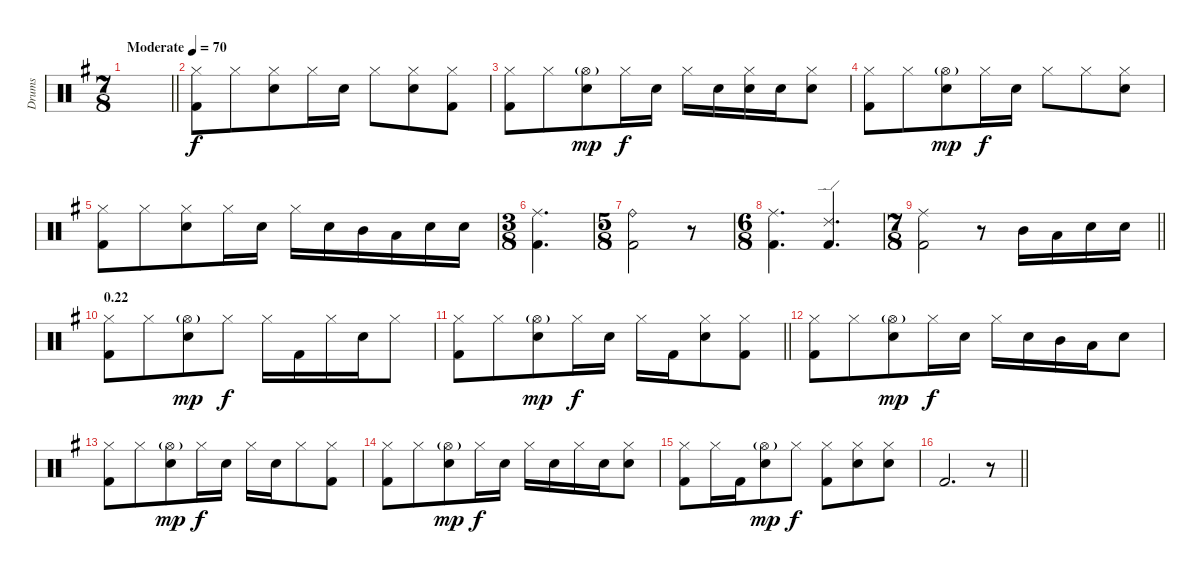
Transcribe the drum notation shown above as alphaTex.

\track ("Drums" "Drums") {instrument percussion}
\staff {score}
\articulation defaults
\ts (7 8)
\tempo (70 "Moderate")
\clef neutral
\barLineRight lightlight
\ks g
|
("Hi-Hat (closed)" "Kick (hit) 2").8 "Hi-Hat (closed)".8 ("Hi-Hat (closed)" "Electric Snare (hit)").8 "Hi-Hat (closed)".16 "Electric Snare (hit)".16 "Hi-Hat (closed)".8 ("Hi-Hat (closed)" "Electric Snare (hit)").8 ("Hi-Hat (closed)" "Kick (hit) 2").8 |
("Hi-Hat (closed)" "Kick (hit) 2").8 "Hi-Hat (closed)".8 ("Hi-Hat (open)"{g} "Electric Snare (hit)").8{dy mp} "Hi-Hat (closed)".16{dy f} "Electric Snare (hit)".16 "Hi-Hat (closed)".16 "Electric Snare (hit)".16 ("Hi-Hat (closed)" "Electric Snare (hit)").16 "Electric Snare (hit)".16 ("Hi-Hat (closed)" "Electric Snare (hit)").8 |
("Hi-Hat (closed)" "Kick (hit) 2").8 "Hi-Hat (closed)".8 ("Hi-Hat (open)"{g} "Electric Snare (hit)").8{dy mp} "Hi-Hat (closed)".16{dy f} "Electric Snare (hit)".16 "Hi-Hat (closed)".8 "Hi-Hat (closed)".8 ("Hi-Hat (closed)" "Electric Snare (hit)").8 |
("Hi-Hat (closed)" "Kick (hit) 2").8 "Hi-Hat (closed)".8 ("Hi-Hat (closed)" "Electric Snare (hit)").8 "Hi-Hat (closed)".16 "Electric Snare (hit)".16 "Hi-Hat (closed)".16 "Electric Snare (hit)".16 "Mid Tom (hit)".16 "Low Tom (hit)".16 "Electric Snare (hit)".16 "Electric Snare (hit)".16 |
\ts (3 8)
("Ride (middle)" "Kick (hit) 2").4{d} |
\ts (5 8)
("Ride (bell)" "Kick (hit) 2").2 r.8 |
\ts (6 8)
("Ride (middle)" "Kick (hit) 2").4{d} ("Ride (edge) 2" "Kick (hit) 2").4{d} |
\ts (7 8)
\barLineRight lightlight
("Ride (middle)" "Kick (hit) 2").2 r.8 "Mid Tom (hit)".16 "Low Tom (hit)".16 "Electric Snare (hit)".16 "Electric Snare (hit)".16 |
\section ("" "0.22")
("Hi-Hat (closed)" "Kick (hit) 2").8 "Hi-Hat (closed)".8 ("Hi-Hat (open)"{g} "Electric Snare (hit)").8{dy mp} "Hi-Hat (closed)".8{dy f} "Hi-Hat (closed)".16 "Kick (hit) 2".16 "Hi-Hat (closed)".16 "Electric Snare (hit)".16 "Hi-Hat (closed)".8 |
\barLineRight lightlight
("Hi-Hat (closed)" "Kick (hit) 2").8 "Hi-Hat (closed)".8 ("Hi-Hat (open)"{g} "Electric Snare (hit)").8{dy mp} "Hi-Hat (closed)".16{dy f} "Electric Snare (hit)".16 "Hi-Hat (closed)".16 "Kick (hit) 2".16 ("Hi-Hat (closed)" "Electric Snare (hit)").8 ("Hi-Hat (closed)" "Kick (hit) 2").8 |
("Hi-Hat (closed)" "Kick (hit) 2").8 "Hi-Hat (closed)".8 ("Hi-Hat (open)"{g} "Electric Snare (hit)").8{dy mp} "Hi-Hat (closed)".16{dy f} "Electric Snare (hit)".16 "Hi-Hat (closed)".16 "Electric Snare (hit)".16 "Mid Tom (hit)".16 "Low Tom (hit)".16 "Electric Snare (hit)".8 |
("Hi-Hat (closed)" "Kick (hit) 2").8 "Hi-Hat (closed)".8 ("Hi-Hat (open)"{g} "Electric Snare (hit)").8{dy mp} "Hi-Hat (closed)".16{dy f} "Electric Snare (hit)".16 "Hi-Hat (closed)".16 "Electric Snare (hit)".16 "Hi-Hat (closed)".8 ("Hi-Hat (closed)" "Kick (hit) 2").8 |
("Hi-Hat (closed)" "Kick (hit) 2").8 "Hi-Hat (closed)".8 ("Hi-Hat (open)"{g} "Electric Snare (hit)").8{dy mp} "Hi-Hat (closed)".16{dy f} "Electric Snare (hit)".16 "Hi-Hat (closed)".16 "Electric Snare (hit)".16 "Hi-Hat (closed)".16 "Electric Snare (hit)".16 ("Hi-Hat (closed)" "Electric Snare (hit)").8 |
("Hi-Hat (closed)" "Kick (hit) 2").8 "Hi-Hat (closed)".16 "Kick (hit) 2".16 ("Hi-Hat (open)"{g} "Electric Snare (hit)").8{dy mp} "Hi-Hat (closed)".8{dy f} ("Hi-Hat (closed)" "Kick (hit) 2").8 ("Hi-Hat (closed)" "Electric Snare (hit)").8 ("Hi-Hat (closed)" "Electric Snare (hit)").8 |
\barLineRight lightlight "Kick (hit) 2".2{d}
r.8
